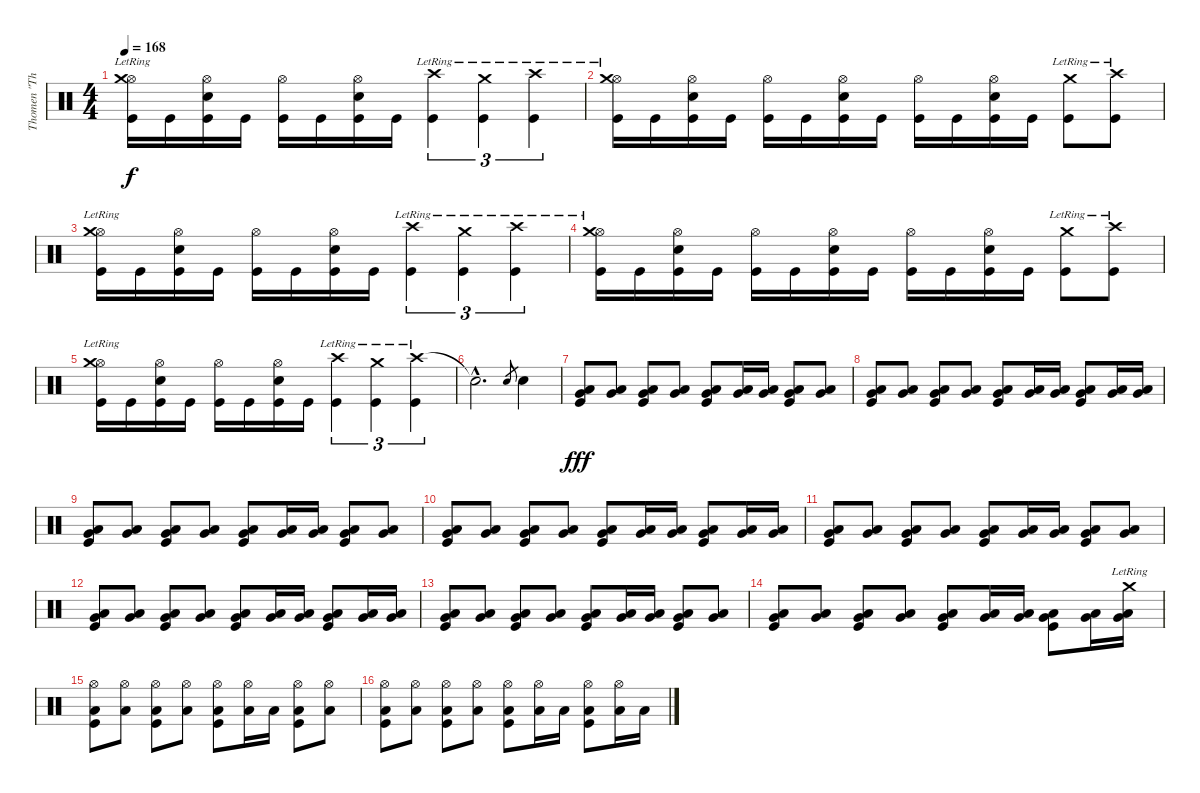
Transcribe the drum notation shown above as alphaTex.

\track ("Thomen \"The Omen\" Stauch" "Thomen \"Th") {instrument percussion}
\staff {score}
\articulation defaults
\ts (4 4)
\tempo 168
\clef neutral
\ks c
("Hi-Hat (open)" "Crash medium (hit)"{lr} "Kick (hit)").16{dy f} "Kick (hit)".16 ("Hi-Hat (open)" "Snare (hit) 2" "Kick (hit)").16 "Kick (hit)".16 ("Hi-Hat (open)" "Kick (hit)").16 "Kick (hit)".16 ("Hi-Hat (open)" "Snare (hit) 2" "Kick (hit)").16 "Kick (hit)".16 ("Crash high (hit)"{lr} "Kick (hit)").4{tu (3 2)} ("Crash medium (hit)"{lr} "Kick (hit)").4{tu (3 2)} ("Crash high (hit)"{lr} "Kick (hit)").4{tu (3 2)} |
("Hi-Hat (open)" "Crash medium (hit)"{lr} "Kick (hit)").16 "Kick (hit)".16 ("Hi-Hat (open)" "Snare (hit) 2" "Kick (hit)").16 "Kick (hit)".16 ("Hi-Hat (open)" "Kick (hit)").16 "Kick (hit)".16 ("Hi-Hat (open)" "Snare (hit) 2" "Kick (hit)").16 "Kick (hit)".16 ("Hi-Hat (open)" "Kick (hit)").16 "Kick (hit)".16 ("Hi-Hat (open)" "Snare (hit) 2" "Kick (hit)").16 "Kick (hit)".16 ("Crash medium (hit)"{lr} "Kick (hit)").8 ("Crash high (hit)"{lr} "Kick (hit)").8 |
("Hi-Hat (open)" "Crash medium (hit)"{lr} "Kick (hit)").16 "Kick (hit)".16 ("Hi-Hat (open)" "Snare (hit) 2" "Kick (hit)").16 "Kick (hit)".16 ("Hi-Hat (open)" "Kick (hit)").16 "Kick (hit)".16 ("Hi-Hat (open)" "Snare (hit) 2" "Kick (hit)").16 "Kick (hit)".16 ("Crash high (hit)"{lr} "Kick (hit)").4{tu (3 2)} ("Crash medium (hit)"{lr} "Kick (hit)").4{tu (3 2)} ("Crash high (hit)"{lr} "Kick (hit)").4{tu (3 2)} |
("Hi-Hat (open)" "Crash medium (hit)"{lr} "Kick (hit)").16 "Kick (hit)".16 ("Hi-Hat (open)" "Snare (hit) 2" "Kick (hit)").16 "Kick (hit)".16 ("Hi-Hat (open)" "Kick (hit)").16 "Kick (hit)".16 ("Hi-Hat (open)" "Snare (hit) 2" "Kick (hit)").16 "Kick (hit)".16 ("Hi-Hat (open)" "Kick (hit)").16 "Kick (hit)".16 ("Hi-Hat (open)" "Snare (hit) 2" "Kick (hit)").16 "Kick (hit)".16 ("Crash medium (hit)"{lr} "Kick (hit)").8 ("Crash high (hit)"{lr} "Kick (hit)").8 |
("Hi-Hat (open)" "Crash medium (hit)"{lr} "Kick (hit)").16 "Kick (hit)".16 ("Hi-Hat (open)" "Snare (hit) 2" "Kick (hit)").16 "Kick (hit)".16 ("Hi-Hat (open)" "Kick (hit)").16 "Kick (hit)".16 ("Hi-Hat (open)" "Snare (hit) 2" "Kick (hit)").16 "Kick (hit)".16 ("Crash high (hit)"{lr} "Kick (hit)").4{tu (3 2)} ("Crash medium (hit)"{lr} "Kick (hit)").4{tu (3 2)} ("Crash high (hit)"{lr} "Kick (hit)").4{tu (3 2)} |
"Snare (hit)"{hac t}.2{d} "Snare (hit) 2".8{gr} "Snare (hit) 2".4 |
("Very Low Tom (hit)" "Low Tom (hit)" "Kick (hit)").8{dy fff} ("Very Low Tom (hit)" "Low Tom (hit)").8 ("Very Low Tom (hit)" "Low Tom (hit)" "Kick (hit)").8 ("Very Low Tom (hit)" "Low Tom (hit)").8 ("Very Low Tom (hit)" "Low Tom (hit)" "Kick (hit)").8 ("Very Low Tom (hit)" "Low Tom (hit)").16 ("Very Low Tom (hit)" "Low Tom (hit)").16 ("Very Low Tom (hit)" "Low Tom (hit)" "Kick (hit)").8 ("Very Low Tom (hit)" "Low Tom (hit)").8 |
("Very Low Tom (hit)" "Low Tom (hit)" "Kick (hit)").8 ("Very Low Tom (hit)" "Low Tom (hit)").8 ("Very Low Tom (hit)" "Low Tom (hit)" "Kick (hit)").8 ("Very Low Tom (hit)" "Low Tom (hit)").8 ("Very Low Tom (hit)" "Low Tom (hit)" "Kick (hit)").8 ("Very Low Tom (hit)" "Low Tom (hit)").16 ("Very Low Tom (hit)" "Low Tom (hit)").16 ("Very Low Tom (hit)" "Low Tom (hit)" "Kick (hit)").8 ("Very Low Tom (hit)" "Low Tom (hit)").16 ("Very Low Tom (hit)" "Low Tom (hit)").16 |
("Very Low Tom (hit)" "Low Tom (hit)" "Kick (hit)").8 ("Very Low Tom (hit)" "Low Tom (hit)").8 ("Very Low Tom (hit)" "Low Tom (hit)" "Kick (hit)").8 ("Very Low Tom (hit)" "Low Tom (hit)").8 ("Very Low Tom (hit)" "Low Tom (hit)" "Kick (hit)").8 ("Very Low Tom (hit)" "Low Tom (hit)").16 ("Very Low Tom (hit)" "Low Tom (hit)").16 ("Very Low Tom (hit)" "Low Tom (hit)" "Kick (hit)").8 ("Very Low Tom (hit)" "Low Tom (hit)").8 |
("Very Low Tom (hit)" "Low Tom (hit)" "Kick (hit)").8 ("Very Low Tom (hit)" "Low Tom (hit)").8 ("Very Low Tom (hit)" "Low Tom (hit)" "Kick (hit)").8 ("Very Low Tom (hit)" "Low Tom (hit)").8 ("Very Low Tom (hit)" "Low Tom (hit)" "Kick (hit)").8 ("Very Low Tom (hit)" "Low Tom (hit)").16 ("Very Low Tom (hit)" "Low Tom (hit)").16 ("Very Low Tom (hit)" "Low Tom (hit)" "Kick (hit)").8 ("Very Low Tom (hit)" "Low Tom (hit)").16 ("Very Low Tom (hit)" "Low Tom (hit)").16 |
("Very Low Tom (hit)" "Low Tom (hit)" "Kick (hit)").8 ("Very Low Tom (hit)" "Low Tom (hit)").8 ("Very Low Tom (hit)" "Low Tom (hit)" "Kick (hit)").8 ("Very Low Tom (hit)" "Low Tom (hit)").8 ("Very Low Tom (hit)" "Low Tom (hit)" "Kick (hit)").8 ("Very Low Tom (hit)" "Low Tom (hit)").16 ("Very Low Tom (hit)" "Low Tom (hit)").16 ("Very Low Tom (hit)" "Low Tom (hit)" "Kick (hit)").8 ("Very Low Tom (hit)" "Low Tom (hit)").8 |
("Very Low Tom (hit)" "Low Tom (hit)" "Kick (hit)").8 ("Very Low Tom (hit)" "Low Tom (hit)").8 ("Very Low Tom (hit)" "Low Tom (hit)" "Kick (hit)").8 ("Very Low Tom (hit)" "Low Tom (hit)").8 ("Very Low Tom (hit)" "Low Tom (hit)" "Kick (hit)").8 ("Very Low Tom (hit)" "Low Tom (hit)").16 ("Very Low Tom (hit)" "Low Tom (hit)").16 ("Very Low Tom (hit)" "Low Tom (hit)" "Kick (hit)").8 ("Very Low Tom (hit)" "Low Tom (hit)").16 ("Very Low Tom (hit)" "Low Tom (hit)").16 |
("Very Low Tom (hit)" "Low Tom (hit)" "Kick (hit)").8 ("Very Low Tom (hit)" "Low Tom (hit)").8 ("Very Low Tom (hit)" "Low Tom (hit)" "Kick (hit)").8 ("Very Low Tom (hit)" "Low Tom (hit)").8 ("Very Low Tom (hit)" "Low Tom (hit)" "Kick (hit)").8 ("Very Low Tom (hit)" "Low Tom (hit)").16 ("Very Low Tom (hit)" "Low Tom (hit)").16 ("Very Low Tom (hit)" "Low Tom (hit)" "Kick (hit)").8 ("Very Low Tom (hit)" "Low Tom (hit)").8 |
("Very Low Tom (hit)" "Low Tom (hit)" "Kick (hit)").8 ("Very Low Tom (hit)" "Low Tom (hit)").8 ("Very Low Tom (hit)" "Low Tom (hit)" "Kick (hit)").8 ("Very Low Tom (hit)" "Low Tom (hit)").8 ("Very Low Tom (hit)" "Low Tom (hit)" "Kick (hit)").8 ("Very Low Tom (hit)" "Low Tom (hit)").16 ("Very Low Tom (hit)" "Low Tom (hit)").16 ("Very Low Tom (hit)" "Low Tom (hit)" "Kick (hit)").8 ("Very Low Tom (hit)" "Low Tom (hit)").16 ("Crash medium (hit)"{lr} "Very Low Tom (hit)" "Low Tom (hit)").16 |
("Hi-Hat (open)" "Low Tom (hit)" "Kick (hit)").8 ("Hi-Hat (open)" "Low Tom (hit)").8 ("Hi-Hat (open)" "Low Tom (hit)" "Kick (hit)").8 ("Hi-Hat (open)" "Low Tom (hit)").8 ("Hi-Hat (open)" "Low Tom (hit)" "Kick (hit)").8 ("Hi-Hat (open)" "Low Tom (hit)").16 "Low Tom (hit)".16 ("Hi-Hat (open)" "Low Tom (hit)" "Kick (hit)").8 ("Hi-Hat (open)" "Low Tom (hit)").8 |
("Hi-Hat (open)" "Low Tom (hit)" "Kick (hit)").8 ("Hi-Hat (open)" "Low Tom (hit)").8 ("Hi-Hat (open)" "Low Tom (hit)" "Kick (hit)").8 ("Hi-Hat (open)" "Low Tom (hit)").8 ("Hi-Hat (open)" "Low Tom (hit)" "Kick (hit)").8 ("Hi-Hat (open)" "Low Tom (hit)").16 "Low Tom (hit)".16 ("Hi-Hat (open)" "Low Tom (hit)" "Kick (hit)").8 ("Hi-Hat (open)" "Low Tom (hit)").16 "Low Tom (hit)".16
